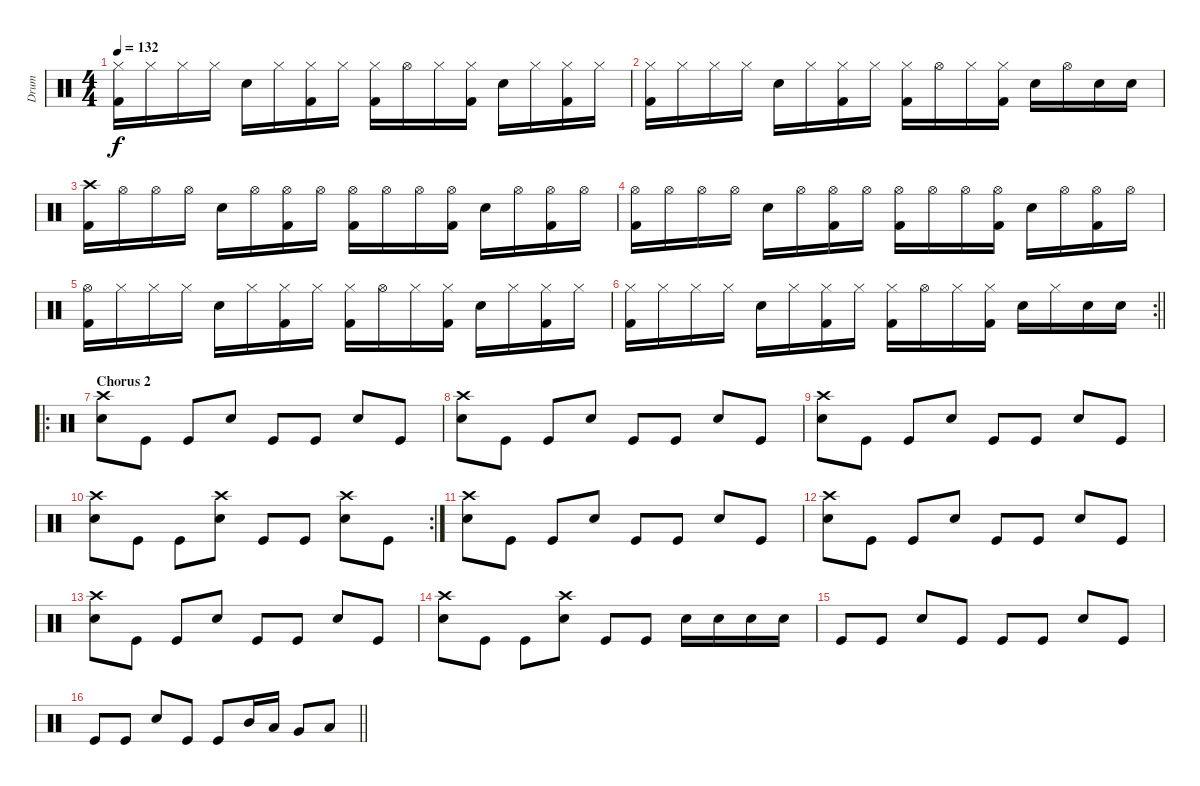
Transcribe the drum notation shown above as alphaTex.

\track ("Drum" "Drum") {instrument percussion}
\staff {score}
\articulation defaults
\ts (4 4)
\tempo 132
\clef neutral
\ks c
("Hi-Hat (closed)" "Kick (hit) 2").16{dy f} "Hi-Hat (closed)".16 "Hi-Hat (closed)".16 "Hi-Hat (closed)".16 "Snare (hit) 2".16 "Hi-Hat (closed)".16 ("Hi-Hat (closed)" "Kick (hit) 2").16 "Hi-Hat (closed)".16 ("Hi-Hat (closed)" "Kick (hit) 2").16 "Hi-Hat (open)".16 "Hi-Hat (closed)".16 ("Hi-Hat (closed)" "Kick (hit) 2").16 "Snare (hit) 2".16 "Hi-Hat (closed)".16 ("Hi-Hat (closed)" "Kick (hit) 2").16 "Hi-Hat (closed)".16 |
("Hi-Hat (closed)" "Kick (hit) 2").16 "Hi-Hat (closed)".16 "Hi-Hat (closed)".16 "Hi-Hat (closed)".16 "Snare (hit) 2".16 "Hi-Hat (closed)".16 ("Hi-Hat (closed)" "Kick (hit) 2").16 "Hi-Hat (closed)".16 ("Hi-Hat (closed)" "Kick (hit) 2").16 "Hi-Hat (open)".16 "Hi-Hat (closed)".16 ("Hi-Hat (closed)" "Kick (hit) 2").16 "Snare (hit) 2".16 "Hi-Hat (open)".16 "Snare (hit) 2".16 "Snare (hit) 2".16 |
("Crash high (hit)" "Kick (hit) 2").16 "Hi-Hat (open)".16 "Hi-Hat (open)".16 "Hi-Hat (open)".16 "Snare (hit) 2".16 "Hi-Hat (open)".16 ("Hi-Hat (open)" "Kick (hit) 2").16 "Hi-Hat (open)".16 ("Hi-Hat (open)" "Kick (hit) 2").16 "Hi-Hat (open)".16 "Hi-Hat (open)".16 ("Hi-Hat (open)" "Kick (hit) 2").16 "Snare (hit) 2".16 "Hi-Hat (open)".16 ("Hi-Hat (open)" "Kick (hit) 2").16 "Hi-Hat (open)".16 |
("Hi-Hat (open)" "Kick (hit) 2").16 "Hi-Hat (open)".16 "Hi-Hat (open)".16 "Hi-Hat (open)".16 "Snare (hit) 2".16 "Hi-Hat (open)".16 ("Hi-Hat (open)" "Kick (hit) 2").16 "Hi-Hat (open)".16 ("Hi-Hat (open)" "Kick (hit) 2").16 "Hi-Hat (open)".16 "Hi-Hat (open)".16 ("Hi-Hat (open)" "Kick (hit) 2").16 "Snare (hit) 2".16 "Hi-Hat (open)".16 ("Hi-Hat (open)" "Kick (hit) 2").16 "Hi-Hat (open)".16 |
("Hi-Hat (open)" "Kick (hit) 2").16 "Hi-Hat (closed)".16 "Hi-Hat (closed)".16 "Hi-Hat (closed)".16 "Snare (hit) 2".16 "Hi-Hat (closed)".16 ("Hi-Hat (closed)" "Kick (hit) 2").16 "Hi-Hat (closed)".16 ("Hi-Hat (closed)" "Kick (hit) 2").16 "Hi-Hat (open)".16 "Hi-Hat (closed)".16 ("Hi-Hat (closed)" "Kick (hit) 2").16 "Snare (hit) 2".16 "Hi-Hat (closed)".16 ("Hi-Hat (closed)" "Kick (hit) 2").16 "Hi-Hat (closed)".16 |
\rc 2
\barLineRight lightlight
("Hi-Hat (closed)" "Kick (hit) 2").16 "Hi-Hat (closed)".16 "Hi-Hat (closed)".16 "Hi-Hat (closed)".16 "Snare (hit) 2".16 "Hi-Hat (closed)".16 ("Hi-Hat (closed)" "Kick (hit) 2").16 "Hi-Hat (closed)".16 ("Hi-Hat (closed)" "Kick (hit) 2").16 "Hi-Hat (open)".16 "Hi-Hat (closed)".16 ("Hi-Hat (closed)" "Kick (hit) 2").16 "Snare (hit) 2".16 "Hi-Hat (closed)".16 "Snare (hit) 2".16 "Snare (hit) 2".16 |
\ro
\section ("" "Chorus 2")
("Crash high (hit)" "Snare (hit) 2").8 "Kick (hit)".8 "Kick (hit)".8 "Snare (hit) 2".8 "Kick (hit)".8 "Kick (hit)".8 "Snare (hit) 2".8 "Kick (hit)".8 |
("Crash high (hit)" "Snare (hit) 2").8 "Kick (hit)".8 "Kick (hit)".8 "Snare (hit) 2".8 "Kick (hit)".8 "Kick (hit)".8 "Snare (hit) 2".8 "Kick (hit)".8 |
("Crash high (hit)" "Snare (hit) 2").8 "Kick (hit)".8 "Kick (hit)".8 "Snare (hit) 2".8 "Kick (hit)".8 "Kick (hit)".8 "Snare (hit) 2".8 "Kick (hit)".8 |
\rc 2
("Crash high (hit)" "Snare (hit) 2").8 "Kick (hit)".8 "Kick (hit)".8 ("Crash high (hit)" "Snare (hit) 2").8 "Kick (hit)".8 "Kick (hit)".8 ("Crash high (hit)" "Snare (hit) 2").8 "Kick (hit)".8 |
("Crash high (hit)" "Snare (hit) 2").8 "Kick (hit)".8 "Kick (hit)".8 "Snare (hit) 2".8 "Kick (hit)".8 "Kick (hit)".8 "Snare (hit) 2".8 "Kick (hit)".8 |
("Crash high (hit)" "Snare (hit) 2").8 "Kick (hit)".8 "Kick (hit)".8 "Snare (hit) 2".8 "Kick (hit)".8 "Kick (hit)".8 "Snare (hit) 2".8 "Kick (hit)".8 |
("Crash high (hit)" "Snare (hit) 2").8 "Kick (hit)".8 "Kick (hit)".8 "Snare (hit) 2".8 "Kick (hit)".8 "Kick (hit)".8 "Snare (hit) 2".8 "Kick (hit)".8 |
("Crash high (hit)" "Snare (hit) 2").8 "Kick (hit)".8 "Kick (hit)".8 ("Crash high (hit)" "Snare (hit) 2").8 "Kick (hit)".8 "Kick (hit)".8 "Snare (hit) 2".16 "Snare (hit) 2".16 "Snare (hit) 2".16 "Snare (hit) 2".16 |
"Kick (hit)".8 "Kick (hit)".8 "Snare (hit) 2".8 "Kick (hit)".8 "Kick (hit)".8 "Kick (hit)".8 "Snare (hit) 2".8 "Kick (hit)".8 |
\barLineRight lightlight "Kick (hit)".8 "Kick (hit)".8 "Snare (hit) 2".8 "Kick (hit)".8 "Kick (hit)".8 "Mid Tom (hit)".16 "Low Tom (hit)".16 "Very Low Tom (hit)".8 "Low Floor Tom (hit)".8
